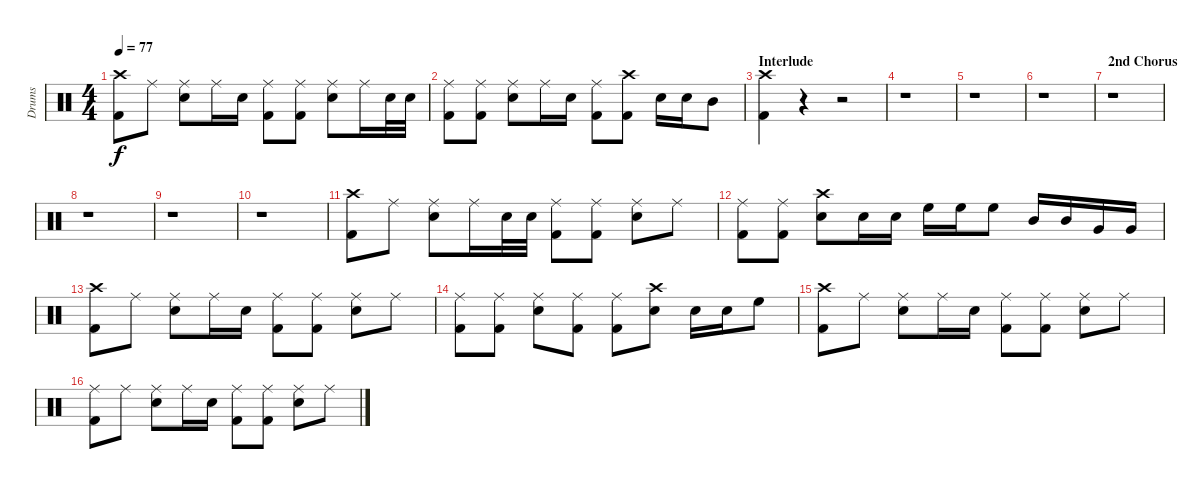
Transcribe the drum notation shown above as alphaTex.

\track ("Drums" "Drums") {instrument percussion}
\staff {score}
\articulation defaults
\ts (4 4)
\tempo 77
\clef neutral
\ks c
("Crash high (hit)" "Kick (hit) 2").8{dy f} "Ride (middle)".8 ("Ride (middle)" "Snare (hit) 2").8 "Ride (middle)".16 "Snare (hit) 2".16 ("Ride (middle)" "Kick (hit) 2").8 ("Ride (middle)" "Kick (hit) 2").8 ("Ride (middle)" "Snare (hit) 2").8 "Ride (middle)".16 "Snare (hit) 2".32 "Snare (hit) 2".32 |
("Ride (middle)" "Kick (hit) 2").8 ("Ride (middle)" "Kick (hit) 2").8 ("Ride (middle)" "Snare (hit) 2").8 "Ride (middle)".16 "Snare (hit) 2".16 ("Ride (middle)" "Kick (hit) 2").8 ("Crash high (hit)" "Kick (hit) 2").8 "Snare (hit) 2".16 "Snare (hit) 2".16 "Mid Tom (hit)".8 |
\section ("" "Interlude")
("Crash high (hit)" "Kick (hit) 2").4 r.4 r.2 |
r.1 |
r.1 |
r.1 |
\section ("" "2nd Chorus")
r.1 |
r.1 |
r.1 |
r.1 |
("Crash high (hit)" "Kick (hit) 2").8 "Ride (middle)".8 ("Ride (middle)" "Snare (hit) 2").8 "Ride (middle)".16 "Snare (hit) 2".32 "Snare (hit) 2".32 ("Ride (middle)" "Kick (hit) 2").8 ("Ride (middle)" "Kick (hit) 2").8 ("Ride (middle)" "Snare (hit) 2").8 "Ride (middle)".8 |
("Ride (middle)" "Kick (hit) 2").8 ("Ride (middle)" "Kick (hit) 2").8 ("Crash high (hit)" "Snare (hit) 2").8 "Snare (hit) 2".16 "Snare (hit) 2".16 "High Floor Tom (hit)".16 "High Floor Tom (hit)".16 "High Floor Tom (hit)".8 "Mid Tom (hit)".16 "Mid Tom (hit)".16 "Very Low Tom (hit)".16 "Very Low Tom (hit)".16 |
("Crash high (hit)" "Kick (hit) 2").8 "Ride (middle)".8 ("Ride (middle)" "Snare (hit) 2").8 "Ride (middle)".16 "Snare (hit) 2".16 ("Ride (middle)" "Kick (hit) 2").8 ("Ride (middle)" "Kick (hit) 2").8 ("Ride (middle)" "Snare (hit) 2").8 "Ride (middle)".8 |
("Ride (middle)" "Kick (hit) 2").8 ("Ride (middle)" "Kick (hit) 2").8 ("Ride (middle)" "Snare (hit) 2").8 ("Ride (middle)" "Kick (hit) 2").8 ("Ride (middle)" "Kick (hit) 2").8 ("Crash high (hit)" "Snare (hit) 2").8 "Snare (hit) 2".16 "Snare (hit) 2".16 "High Floor Tom (hit)".8 |
("Crash high (hit)" "Kick (hit) 2").8 "Ride (middle)".8 ("Ride (middle)" "Snare (hit) 2").8 "Ride (middle)".16 "Snare (hit) 2".16 ("Ride (middle)" "Kick (hit) 2").8 ("Ride (middle)" "Kick (hit) 2").8 ("Ride (middle)" "Snare (hit) 2").8 "Ride (middle)".8 |
("Ride (middle)" "Kick (hit) 2").8 "Ride (middle)".8 ("Ride (middle)" "Snare (hit) 2").8 "Ride (middle)".16 "Snare (hit) 2".16 ("Ride (middle)" "Kick (hit) 2").8 ("Ride (middle)" "Kick (hit) 2").8 ("Ride (middle)" "Snare (hit) 2").8 "Ride (middle)".8
